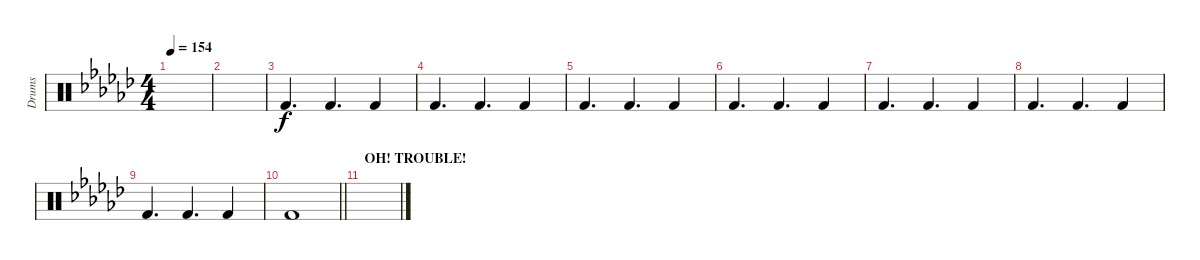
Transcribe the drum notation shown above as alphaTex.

\track ("Drums" "Drums") {instrument percussion}
\staff {score}
\articulation defaults
\ts (4 4)
\tempo 154
\clef neutral
\ks gb
|
|
"Kick (hit) 2".4{d} "Kick (hit) 2".4{d} "Kick (hit) 2".4 |
"Kick (hit) 2".4{d} "Kick (hit) 2".4{d} "Kick (hit) 2".4 |
"Kick (hit) 2".4{d} "Kick (hit) 2".4{d} "Kick (hit) 2".4 |
"Kick (hit) 2".4{d} "Kick (hit) 2".4{d} "Kick (hit) 2".4 |
"Kick (hit) 2".4{d} "Kick (hit) 2".4{d} "Kick (hit) 2".4 |
"Kick (hit) 2".4{d} "Kick (hit) 2".4{d} "Kick (hit) 2".4 |
"Kick (hit) 2".4{d} "Kick (hit) 2".4{d} "Kick (hit) 2".4 |
\barLineRight lightlight "Kick (hit) 2".1
|
\section ("" "OH! TROUBLE!")
